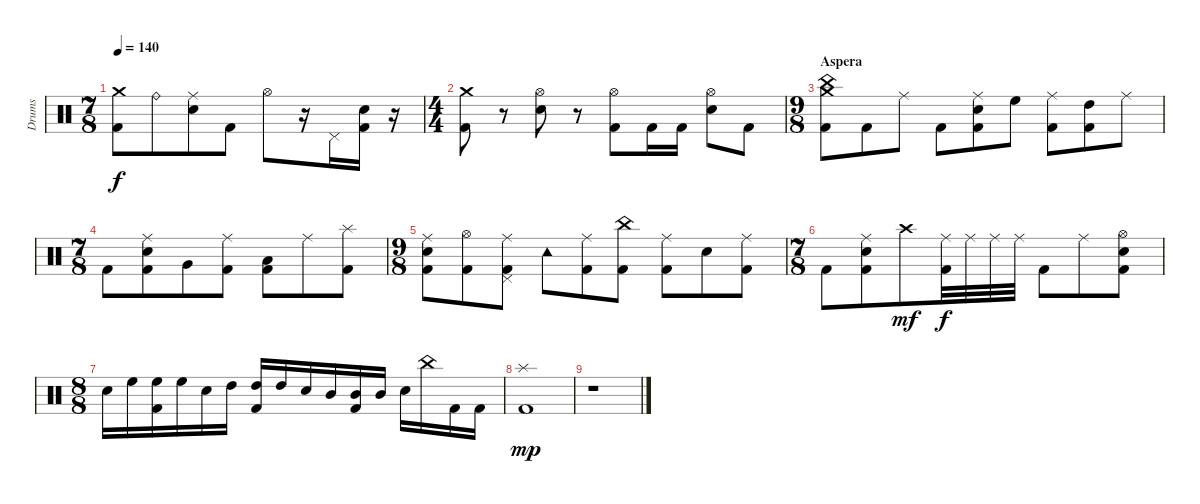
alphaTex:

\track ("Drums" "Drums") {instrument percussion}
\staff {score}
\articulation defaults
\ts (7 8)
\tempo 140
\clef neutral
\ks c
("Crash medium (hit)" "Kick (hit) 2").8{dy f} "Ride (bell)".8 ("Ride (middle)" "Electric Snare (hit)").8 "Kick (hit) 2".8 "Hi-Hat (open)".8 r.16 "Pedal Hi-Hat (hit)".16 ("Electric Snare (hit)" "Kick (hit) 2").16 r.16 |
\ts (4 4)
("Crash medium (hit)" "Kick (hit) 2").8 r.8 ("Hi-Hat (open)" "Electric Snare (hit)").8 r.8 ("Hi-Hat (open)" "Kick (hit) 2").8 "Kick (hit) 2".16 "Kick (hit) 2".16 ("Hi-Hat (open)" "Electric Snare (hit)").8 "Kick (hit) 2".8 |
\ts (9 8)
\section ("" "Aspera")
("Crash medium (hit)" "China (hit)" "Kick (hit) 2").8 "Kick (hit) 2".8 "Ride (middle)".8 "Kick (hit) 2".8 ("Ride (middle)" "Electric Snare (hit)" "Kick (hit) 2").8 "High Floor Tom (hit)".8 ("Ride (middle)" "Kick (hit) 2").8 ("High Tom (hit)" "Kick (hit) 2").8 "Ride (middle)".8 |
\ts (7 8)
"Kick (hit) 2".8 ("Ride (middle)" "Electric Snare (hit)" "Kick (hit) 2").8 "Very Low Tom (hit)".8 ("Ride (middle)" "Kick (hit) 2").8 ("Low Floor Tom (hit)" "Kick (hit) 2").8 "Ride (middle)".8 ("Splash (hit)" "Kick (hit) 2").8 |
\ts (9 8)
("Ride (middle)" "Electric Snare (hit)" "Kick (hit) 2").8 ("Hi-Hat (open)" "Kick (hit) 2").8 ("Ride (middle)" "Pedal Hi-Hat (hit)" "Kick (hit) 2").8 "Tambourine (hit)".8 ("Ride (middle)" "Kick (hit) 2").8 ("China (hit)" "Kick (hit) 2").8 ("Ride (middle)" "Kick (hit) 2").8 "Electric Snare (hit)".8 ("Ride (middle)" "Kick (hit) 2").8 |
\ts (7 8)
"Kick (hit) 2".8 ("Ride (middle)" "Electric Snare (hit)" "Kick (hit) 2").8 "Crash high (hit)".8{dy mf} ("Ride (middle)" "Kick (hit) 2").32{dy f} "Ride (middle)".32 "Ride (middle)".32 "Ride (middle)".32 "Kick (hit) 2".8 "Ride (middle)".8 ("Hi-Hat (open)" "Electric Snare (hit)" "Kick (hit) 2").8 |
\ts (8 8)
"Electric Snare (hit)".16 "High Floor Tom (hit)".16 ("High Floor Tom (hit)" "Kick (hit) 2").16 "High Floor Tom (hit)".16 "Electric Snare (hit)".16 "High Tom (hit)".16 ("High Tom (hit)" "Kick (hit) 2").16 "High Tom (hit)".16 "Electric Snare (hit)".16 "Mid Tom (hit)".16 ("Mid Tom (hit)" "Kick (hit) 2").16 "Mid Tom (hit)".16 "Electric Snare (hit)".16 "China (hit)".16 "Kick (hit) 2".16 "Kick (hit) 2".16 |
("Splash (hit)" "Kick (hit) 2").1{dy mp} |
r.1
